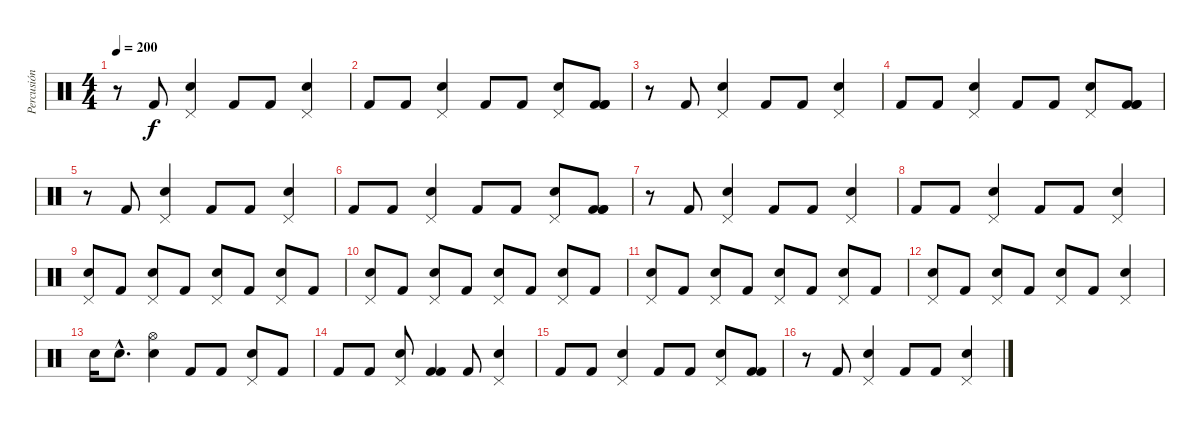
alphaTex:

\track ("Percusión" "Percusión") {instrument percussion}
\staff {score}
\articulation defaults
\ts (4 4)
\tempo 200
\clef neutral
\ks c
r.8{dy f} "Kick (hit) 2".8 ("Electric Snare (hit)" "Pedal Hi-Hat (hit)").4 "Kick (hit) 2".8 "Kick (hit) 2".8 ("Electric Snare (hit)" "Pedal Hi-Hat (hit)").4 |
"Kick (hit) 2".8 "Kick (hit) 2".8 ("Electric Snare (hit)" "Pedal Hi-Hat (hit)").4 "Kick (hit) 2".8 "Kick (hit) 2".8 ("Electric Snare (hit)" "Pedal Hi-Hat (hit)").8 ("Kick (hit) 2" "Kick (hit) 2" "Kick (hit) 2").8 |
r.8 "Kick (hit) 2".8 ("Electric Snare (hit)" "Pedal Hi-Hat (hit)").4 "Kick (hit) 2".8 "Kick (hit) 2".8 ("Electric Snare (hit)" "Pedal Hi-Hat (hit)").4 |
"Kick (hit) 2".8 "Kick (hit) 2".8 ("Electric Snare (hit)" "Pedal Hi-Hat (hit)").4 "Kick (hit) 2".8 "Kick (hit) 2".8 ("Electric Snare (hit)" "Pedal Hi-Hat (hit)").8 ("Kick (hit) 2" "Kick (hit) 2" "Kick (hit) 2").8 |
r.8 "Kick (hit) 2".8 ("Electric Snare (hit)" "Pedal Hi-Hat (hit)").4 "Kick (hit) 2".8 "Kick (hit) 2".8 ("Electric Snare (hit)" "Pedal Hi-Hat (hit)").4 |
"Kick (hit) 2".8 "Kick (hit) 2".8 ("Electric Snare (hit)" "Pedal Hi-Hat (hit)").4 "Kick (hit) 2".8 "Kick (hit) 2".8 ("Electric Snare (hit)" "Pedal Hi-Hat (hit)").8 ("Kick (hit) 2" "Kick (hit) 2" "Kick (hit) 2").8 |
r.8 "Kick (hit) 2".8 ("Electric Snare (hit)" "Pedal Hi-Hat (hit)").4 "Kick (hit) 2".8 "Kick (hit) 2".8 ("Electric Snare (hit)" "Pedal Hi-Hat (hit)").4 |
"Kick (hit) 2".8 "Kick (hit) 2".8 ("Electric Snare (hit)" "Pedal Hi-Hat (hit)").4 "Kick (hit) 2".8 "Kick (hit) 2".8 ("Electric Snare (hit)" "Pedal Hi-Hat (hit)").4 |
("Electric Snare (hit)" "Pedal Hi-Hat (hit)").8 "Kick (hit) 2".8 ("Electric Snare (hit)" "Pedal Hi-Hat (hit)").8 "Kick (hit) 2".8 ("Electric Snare (hit)" "Pedal Hi-Hat (hit)").8 "Kick (hit) 2".8 ("Electric Snare (hit)" "Pedal Hi-Hat (hit)").8 "Kick (hit) 2".8 |
("Electric Snare (hit)" "Pedal Hi-Hat (hit)").8 "Kick (hit) 2".8 ("Electric Snare (hit)" "Pedal Hi-Hat (hit)").8 "Kick (hit) 2".8 ("Electric Snare (hit)" "Pedal Hi-Hat (hit)").8 "Kick (hit) 2".8 ("Electric Snare (hit)" "Pedal Hi-Hat (hit)").8 "Kick (hit) 2".8 |
("Electric Snare (hit)" "Pedal Hi-Hat (hit)").8 "Kick (hit) 2".8 ("Electric Snare (hit)" "Pedal Hi-Hat (hit)").8 "Kick (hit) 2".8 ("Electric Snare (hit)" "Pedal Hi-Hat (hit)").8 "Kick (hit) 2".8 ("Electric Snare (hit)" "Pedal Hi-Hat (hit)").8 "Kick (hit) 2".8 |
("Electric Snare (hit)" "Pedal Hi-Hat (hit)").8 "Kick (hit) 2".8 ("Electric Snare (hit)" "Pedal Hi-Hat (hit)").8 "Kick (hit) 2".8 ("Electric Snare (hit)" "Pedal Hi-Hat (hit)").8 "Kick (hit) 2".8 ("Electric Snare (hit)" "Pedal Hi-Hat (hit)").4 |
"Electric Snare (hit)".16 "Electric Snare (hit)"{hac}.8{d} ("Electric Snare (hit)" "Hi-Hat (open)").4 "Kick (hit) 2".8 "Kick (hit) 2".8 ("Electric Snare (hit)" "Pedal Hi-Hat (hit)").8 "Kick (hit) 2".8 |
"Kick (hit) 2".8 "Kick (hit) 2".8 ("Electric Snare (hit)" "Pedal Hi-Hat (hit)").8 ("Kick (hit) 2" "Kick (hit) 2").4 "Kick (hit) 2".8 ("Electric Snare (hit)" "Pedal Hi-Hat (hit)").4 |
"Kick (hit) 2".8 "Kick (hit) 2".8 ("Electric Snare (hit)" "Pedal Hi-Hat (hit)").4 "Kick (hit) 2".8 "Kick (hit) 2".8 ("Electric Snare (hit)" "Pedal Hi-Hat (hit)").8 ("Kick (hit) 2" "Kick (hit) 2").8 |
r.8 "Kick (hit) 2".8 ("Electric Snare (hit)" "Pedal Hi-Hat (hit)").4 "Kick (hit) 2".8 "Kick (hit) 2".8 ("Electric Snare (hit)" "Pedal Hi-Hat (hit)").4
